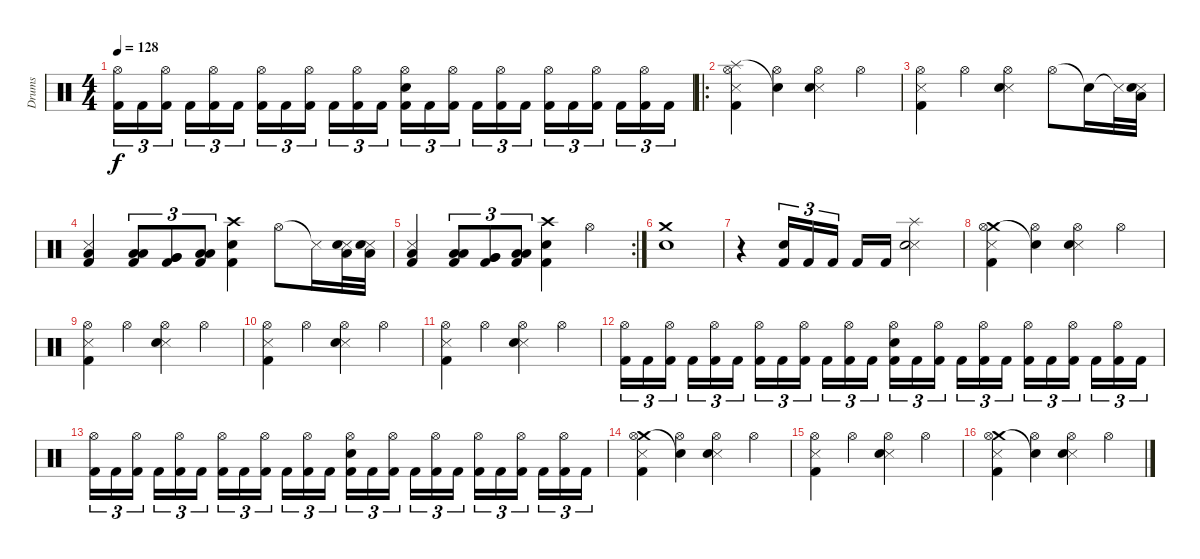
\track ("Drums" "Drums") {instrument percussion}
\staff {score}
\articulation defaults
\ts (4 4)
\tempo 128
\clef neutral
\ks c
("Hi-Hat (open)" "Kick (hit) 2").16{tu (3 2) dy f} "Kick (hit) 2".16{tu (3 2)} ("Hi-Hat (open)" "Kick (hit) 2").16{tu (3 2) beam splitsecondary} "Kick (hit) 2".16{tu (3 2)} ("Hi-Hat (open)" "Kick (hit) 2").16{tu (3 2)} "Kick (hit) 2".16{tu (3 2)} ("Hi-Hat (open)" "Kick (hit) 2").16{tu (3 2)} "Kick (hit) 2".16{tu (3 2)} ("Hi-Hat (open)" "Kick (hit) 2").16{tu (3 2) beam splitsecondary} "Kick (hit) 2".16{tu (3 2)} ("Hi-Hat (open)" "Kick (hit) 2").16{tu (3 2)} "Kick (hit) 2".16{tu (3 2)} ("Hi-Hat (open)" "Electric Snare (hit)" "Kick (hit) 2").16{tu (3 2)} "Kick (hit) 2".16{tu (3 2)} ("Hi-Hat (open)" "Kick (hit) 2").16{tu (3 2) beam splitsecondary} "Kick (hit) 2".16{tu (3 2)} ("Hi-Hat (open)" "Kick (hit) 2").16{tu (3 2)} "Kick (hit) 2".16{tu (3 2)} ("Hi-Hat (open)" "Kick (hit) 2").16{tu (3 2)} "Kick (hit) 2".16{tu (3 2)} ("Hi-Hat (open)" "Kick (hit) 2").16{tu (3 2) beam splitsecondary} "Kick (hit) 2".16{tu (3 2)} ("Hi-Hat (open)" "Kick (hit) 2").16{tu (3 2)} "Kick (hit) 2".16{tu (3 2)} |
\ro
("Splash (hit)" "Snare (side stick) 3" "Hi-Hat (open)" "Kick (hit) 2").4 ("Snare (hit)"{t} "Hi-Hat (open)").4 ("Snare (side stick) 3" "Hi-Hat (open)" "Electric Snare (hit)").4 "Hi-Hat (open)".4 |
("Snare (side stick) 3" "Hi-Hat (open)" "Kick (hit) 2").4 "Hi-Hat (open)".4 ("Snare (side stick) 3" "Hi-Hat (open)" "Electric Snare (hit)").4 "Hi-Hat (open)".8 "Snare (hit)"{t}.16 "Snare (side stick) 3"{t}.32 ("Snare (side stick) 3" "Low Floor Tom (hit)" "Electric Snare (hit)").32 |
("Snare (side stick) 3" "Low Floor Tom (hit)" "Kick (hit) 2").4 ("Low Tom (hit)" "Low Tom (hit)" "Kick (hit) 2").8{tu (3 2)} ("Very Low Tom (hit)" "Very Low Tom (hit)" "Kick (hit) 2").8{tu (3 2)} ("Low Floor Tom (hit)" "Low Floor Tom (hit)" "Kick (hit) 2").8{tu (3 2)} ("Crash high (hit)" "Electric Snare (hit)" "Kick (hit) 2").4 "Hi-Hat (open)".8 "Snare (side stick) 3"{t}.16 ("Snare (side stick) 3" "Low Floor Tom (hit)" "Electric Snare (hit)").32 ("Snare (side stick) 3" "Low Floor Tom (hit)" "Electric Snare (hit)").32 |
\rc 2
("Snare (side stick) 3" "Low Floor Tom (hit)" "Kick (hit) 2").4 ("Low Tom (hit)" "Low Tom (hit)" "Kick (hit) 2").8{tu (3 2)} ("Very Low Tom (hit)" "Very Low Tom (hit)" "Kick (hit) 2").8{tu (3 2)} ("Low Floor Tom (hit)" "Low Floor Tom (hit)" "Kick (hit) 2").8{tu (3 2)} ("Crash high (hit)" "Electric Snare (hit)" "Kick (hit) 2").4 "Hi-Hat (open)".4 |
("Crash medium (hit)" "Electric Snare (hit)").1 |
r.4 ("Electric Snare (hit)" "Kick (hit) 2").16{tu (3 2)} "Kick (hit) 2".16{tu (3 2)} "Kick (hit) 2".16{tu (3 2) beam splitsecondary} "Kick (hit) 2".16 "Kick (hit) 2".16 ("Splash (hit)" "Snare (side stick) 3" "Electric Snare (hit)").2 |
("Crash medium (hit)" "Snare (side stick) 3" "Hi-Hat (open)" "Kick (hit) 2").4 ("Snare (hit)"{t} "Hi-Hat (open)").4 ("Snare (side stick) 3" "Hi-Hat (open)" "Electric Snare (hit)").4 "Hi-Hat (open)".4 |
("Snare (side stick) 3" "Hi-Hat (open)" "Kick (hit) 2").4 "Hi-Hat (open)".4 ("Snare (side stick) 3" "Hi-Hat (open)" "Electric Snare (hit)").4 "Hi-Hat (open)".4 |
("Snare (side stick) 3" "Hi-Hat (open)" "Kick (hit) 2").4 "Hi-Hat (open)".4 ("Snare (side stick) 3" "Hi-Hat (open)" "Electric Snare (hit)").4 "Hi-Hat (open)".4 |
("Snare (side stick) 3" "Hi-Hat (open)" "Kick (hit) 2").4 "Hi-Hat (open)".4 ("Snare (side stick) 3" "Hi-Hat (open)" "Electric Snare (hit)").4 "Hi-Hat (open)".4 |
("Hi-Hat (open)" "Kick (hit) 2").16{tu (3 2)} "Kick (hit) 2".16{tu (3 2)} ("Hi-Hat (open)" "Kick (hit) 2").16{tu (3 2) beam splitsecondary} "Kick (hit) 2".16{tu (3 2)} ("Hi-Hat (open)" "Kick (hit) 2").16{tu (3 2)} "Kick (hit) 2".16{tu (3 2)} ("Hi-Hat (open)" "Kick (hit) 2").16{tu (3 2)} "Kick (hit) 2".16{tu (3 2)} ("Hi-Hat (open)" "Kick (hit) 2").16{tu (3 2) beam splitsecondary} "Kick (hit) 2".16{tu (3 2)} ("Hi-Hat (open)" "Kick (hit) 2").16{tu (3 2)} "Kick (hit) 2".16{tu (3 2)} ("Hi-Hat (open)" "Electric Snare (hit)" "Kick (hit) 2").16{tu (3 2)} "Kick (hit) 2".16{tu (3 2)} ("Hi-Hat (open)" "Kick (hit) 2").16{tu (3 2) beam splitsecondary} "Kick (hit) 2".16{tu (3 2)} ("Hi-Hat (open)" "Kick (hit) 2").16{tu (3 2)} "Kick (hit) 2".16{tu (3 2)} ("Hi-Hat (open)" "Kick (hit) 2").16{tu (3 2)} "Kick (hit) 2".16{tu (3 2)} ("Hi-Hat (open)" "Kick (hit) 2").16{tu (3 2) beam splitsecondary} "Kick (hit) 2".16{tu (3 2)} ("Hi-Hat (open)" "Kick (hit) 2").16{tu (3 2)} "Kick (hit) 2".16{tu (3 2)} |
("Hi-Hat (open)" "Kick (hit) 2").16{tu (3 2)} "Kick (hit) 2".16{tu (3 2)} ("Hi-Hat (open)" "Kick (hit) 2").16{tu (3 2) beam splitsecondary} "Kick (hit) 2".16{tu (3 2)} ("Hi-Hat (open)" "Kick (hit) 2").16{tu (3 2)} "Kick (hit) 2".16{tu (3 2)} ("Hi-Hat (open)" "Kick (hit) 2").16{tu (3 2)} "Kick (hit) 2".16{tu (3 2)} ("Hi-Hat (open)" "Kick (hit) 2").16{tu (3 2) beam splitsecondary} "Kick (hit) 2".16{tu (3 2)} ("Hi-Hat (open)" "Kick (hit) 2").16{tu (3 2)} "Kick (hit) 2".16{tu (3 2)} ("Hi-Hat (open)" "Electric Snare (hit)" "Kick (hit) 2").16{tu (3 2)} "Kick (hit) 2".16{tu (3 2)} ("Hi-Hat (open)" "Kick (hit) 2").16{tu (3 2) beam splitsecondary} "Kick (hit) 2".16{tu (3 2)} ("Hi-Hat (open)" "Kick (hit) 2").16{tu (3 2)} "Kick (hit) 2".16{tu (3 2)} ("Hi-Hat (open)" "Kick (hit) 2").16{tu (3 2)} "Kick (hit) 2".16{tu (3 2)} ("Hi-Hat (open)" "Kick (hit) 2").16{tu (3 2) beam splitsecondary} "Kick (hit) 2".16{tu (3 2)} ("Hi-Hat (open)" "Kick (hit) 2").16{tu (3 2)} "Kick (hit) 2".16{tu (3 2)} |
("Crash medium (hit)" "Snare (side stick) 3" "Hi-Hat (open)" "Kick (hit) 2").4 ("Snare (hit)"{t} "Hi-Hat (open)").4 ("Snare (side stick) 3" "Hi-Hat (open)" "Electric Snare (hit)").4 "Hi-Hat (open)".4 |
("Snare (side stick) 3" "Hi-Hat (open)" "Kick (hit) 2").4 "Hi-Hat (open)".4 ("Snare (side stick) 3" "Hi-Hat (open)" "Electric Snare (hit)").4 "Hi-Hat (open)".4 |
("Crash medium (hit)" "Snare (side stick) 3" "Hi-Hat (open)" "Kick (hit) 2").4 ("Snare (hit)"{t} "Hi-Hat (open)").4 ("Snare (side stick) 3" "Hi-Hat (open)" "Electric Snare (hit)").4 "Hi-Hat (open)".4
